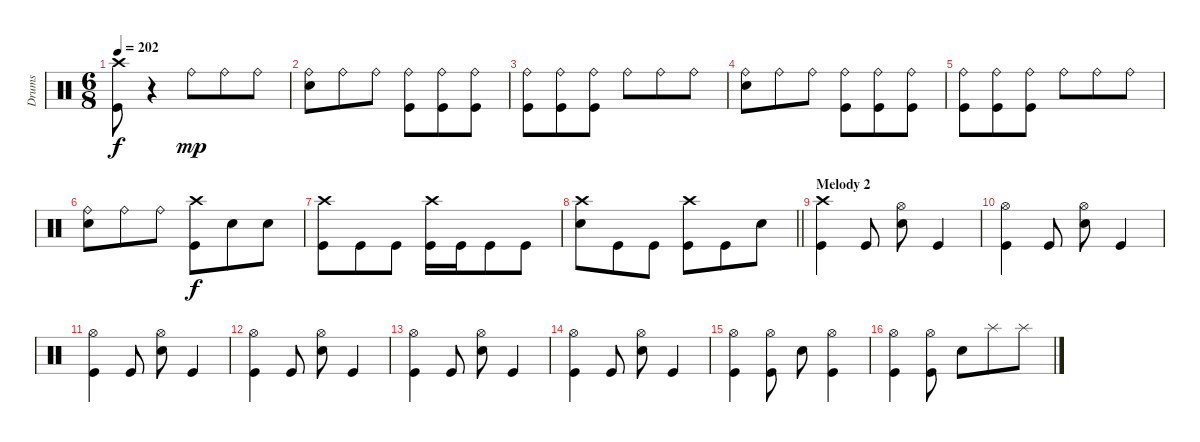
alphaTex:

\track ("Drums" "Drums") {instrument percussion}
\staff {score}
\articulation defaults
\ts (6 8)
\tempo 202
\clef neutral
\ks c
("Crash high (hit)" "Kick (hit)").8{dy f} r.4 "Ride (bell)".8{dy mp} "Ride (bell)".8 "Ride (bell)".8 |
("Ride (bell)" "Electric Snare (hit)").8 "Ride (bell)".8 "Ride (bell)".8 ("Ride (bell)" "Kick (hit)").8 ("Ride (bell)" "Kick (hit)").8 ("Ride (bell)" "Kick (hit)").8 |
("Ride (bell)" "Kick (hit)").8 ("Ride (bell)" "Kick (hit)").8 ("Ride (bell)" "Kick (hit)").8 "Ride (bell)".8 "Ride (bell)".8 "Ride (bell)".8 |
("Ride (bell)" "Electric Snare (hit)").8 "Ride (bell)".8 "Ride (bell)".8 ("Ride (bell)" "Kick (hit)").8 ("Ride (bell)" "Kick (hit)").8 ("Ride (bell)" "Kick (hit)").8 |
("Ride (bell)" "Kick (hit)").8 ("Ride (bell)" "Kick (hit)").8 ("Ride (bell)" "Kick (hit)").8 "Ride (bell)".8 "Ride (bell)".8 "Ride (bell)".8 |
("Ride (bell)" "Electric Snare (hit)").8 "Ride (bell)".8 "Ride (bell)".8 ("Crash high (hit)" "Kick (hit)").8{dy f} "Electric Snare (hit)".8 "Electric Snare (hit)".8 |
("Crash high (hit)" "Kick (hit)").8 "Kick (hit)".8 "Kick (hit)".8 ("Crash high (hit)" "Kick (hit)").16 "Kick (hit)".16 "Kick (hit)".8 "Kick (hit)".8 |
\barLineRight lightlight
("Crash high (hit)" "Electric Snare (hit)").8 "Kick (hit)".8 "Kick (hit)".8 ("Crash high (hit)" "Kick (hit)").8 "Kick (hit)".8 "Electric Snare (hit)".8 |
\section ("" "Melody 2")
("Crash high (hit)" "Kick (hit)").4 "Kick (hit)".8 ("Hi-Hat (open)" "Electric Snare (hit)").8 "Kick (hit)".4 |
("Hi-Hat (open)" "Kick (hit)").4 "Kick (hit)".8 ("Hi-Hat (open)" "Electric Snare (hit)").8 "Kick (hit)".4 |
("Hi-Hat (open)" "Kick (hit)").4 "Kick (hit)".8 ("Hi-Hat (open)" "Electric Snare (hit)").8 "Kick (hit)".4 |
("Hi-Hat (open)" "Kick (hit)").4 "Kick (hit)".8 ("Hi-Hat (open)" "Electric Snare (hit)").8 "Kick (hit)".4 |
("Hi-Hat (open)" "Kick (hit)").4 "Kick (hit)".8 ("Hi-Hat (open)" "Electric Snare (hit)").8 "Kick (hit)".4 |
("Hi-Hat (open)" "Kick (hit)").4 "Kick (hit)".8 ("Hi-Hat (open)" "Electric Snare (hit)").8 "Kick (hit)".4 |
("Hi-Hat (open)" "Kick (hit)").4 ("Hi-Hat (open)" "Kick (hit)").8 "Electric Snare (hit)".8 ("Hi-Hat (open)" "Kick (hit)").4 |
("Hi-Hat (open)" "Kick (hit)").4 ("Hi-Hat (open)" "Kick (hit)").8 "Electric Snare (hit)".8 "Splash (hit)".8 "Splash (hit)".8
